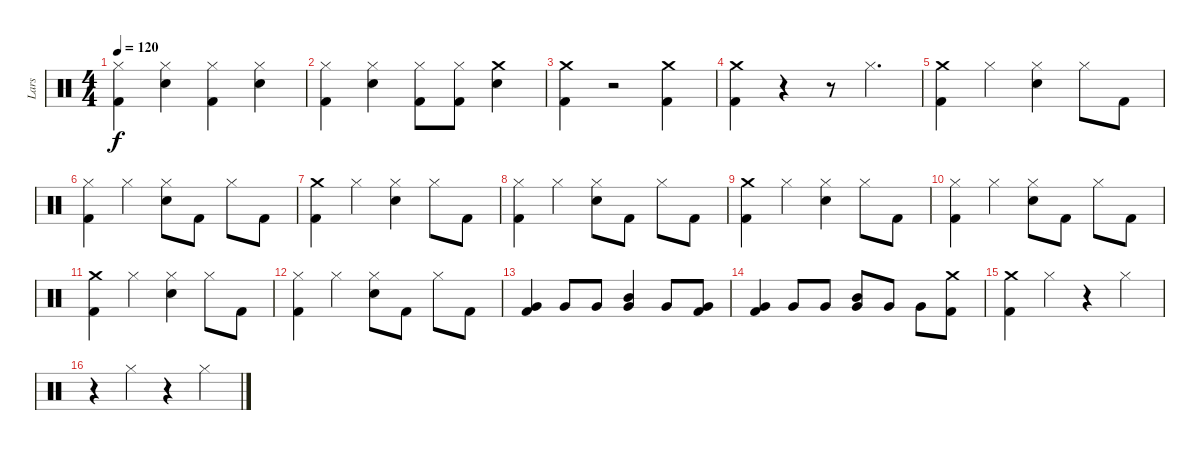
\track ("Lars" "Lars") {instrument percussion}
\staff {score}
\articulation defaults
\ts (4 4)
\tempo 120
\clef neutral
\ks c
("Kick (hit) 2" "Hi-Hat (closed)").4{dy f} ("Hi-Hat (closed)" "Snare (hit) 2").4 ("Hi-Hat (closed)" "Kick (hit) 2").4 ("Hi-Hat (closed)" "Snare (hit) 2").4 |
("Hi-Hat (closed)" "Kick (hit) 2").4 ("Hi-Hat (closed)" "Snare (hit) 2").4 ("Kick (hit) 2" "Hi-Hat (closed)").8 ("Kick (hit) 2" "Hi-Hat (closed)").8 ("Crash medium (hit)" "Snare (hit) 2").4 |
("Crash medium (hit)" "Kick (hit) 2").4 r.2 ("Kick (hit) 2" "Crash medium (hit)").4 |
("Crash medium (hit)" "Kick (hit) 2").4 r.4 r.8 "Hi-Hat (closed)".4{d} |
("Kick (hit) 2" "Crash medium (hit)").4 "Hi-Hat (closed)".4 ("Snare (hit) 2" "Hi-Hat (closed)").4 "Hi-Hat (closed)".8 "Kick (hit) 2".8 |
("Hi-Hat (closed)" "Kick (hit) 2").4 "Hi-Hat (closed)".4 ("Snare (hit) 2" "Hi-Hat (closed)").8 "Kick (hit) 2".8 "Hi-Hat (closed)".8 "Kick (hit) 2".8 |
("Kick (hit) 2" "Crash medium (hit)").4 "Hi-Hat (closed)".4 ("Snare (hit) 2" "Hi-Hat (closed)").4 "Hi-Hat (closed)".8 "Kick (hit) 2".8 |
("Hi-Hat (closed)" "Kick (hit) 2").4 "Hi-Hat (closed)".4 ("Snare (hit) 2" "Hi-Hat (closed)").8 "Kick (hit) 2".8 "Hi-Hat (closed)".8 "Kick (hit) 2".8 |
("Kick (hit) 2" "Crash medium (hit)").4 "Hi-Hat (closed)".4 ("Snare (hit) 2" "Hi-Hat (closed)").4 "Hi-Hat (closed)".8 "Kick (hit) 2".8 |
("Hi-Hat (closed)" "Kick (hit) 2").4 "Hi-Hat (closed)".4 ("Snare (hit) 2" "Hi-Hat (closed)").8 "Kick (hit) 2".8 "Hi-Hat (closed)".8 "Kick (hit) 2".8 |
("Kick (hit) 2" "Crash medium (hit)").4 "Hi-Hat (closed)".4 ("Snare (hit) 2" "Hi-Hat (closed)").4 "Hi-Hat (closed)".8 "Kick (hit) 2".8 |
("Hi-Hat (closed)" "Kick (hit) 2").4 "Hi-Hat (closed)".4 ("Snare (hit) 2" "Hi-Hat (closed)").8 "Kick (hit) 2".8 "Hi-Hat (closed)".8 "Kick (hit) 2".8 |
("Kick (hit) 2" "Very Low Tom (hit)").4 "Very Low Tom (hit)".8 "Very Low Tom (hit)".8 ("Mid Tom (hit)" "Very Low Tom (hit)").4 "Very Low Tom (hit)".8 ("Kick (hit) 2" "Very Low Tom (hit)").8 |
("Kick (hit) 2" "Very Low Tom (hit)").4 "Very Low Tom (hit)".8 "Very Low Tom (hit)".8 ("Very Low Tom (hit)" "Mid Tom (hit)").8 "Very Low Tom (hit)".8 "Very Low Tom (hit)".8 ("Kick (hit) 2" "Crash medium (hit)").8 |
("Crash medium (hit)" "Kick (hit) 2").4 "Hi-Hat (closed)".4 r.4 "Hi-Hat (closed)".4 |
r.4 "Hi-Hat (closed)".4 r.4 "Hi-Hat (closed)".4
